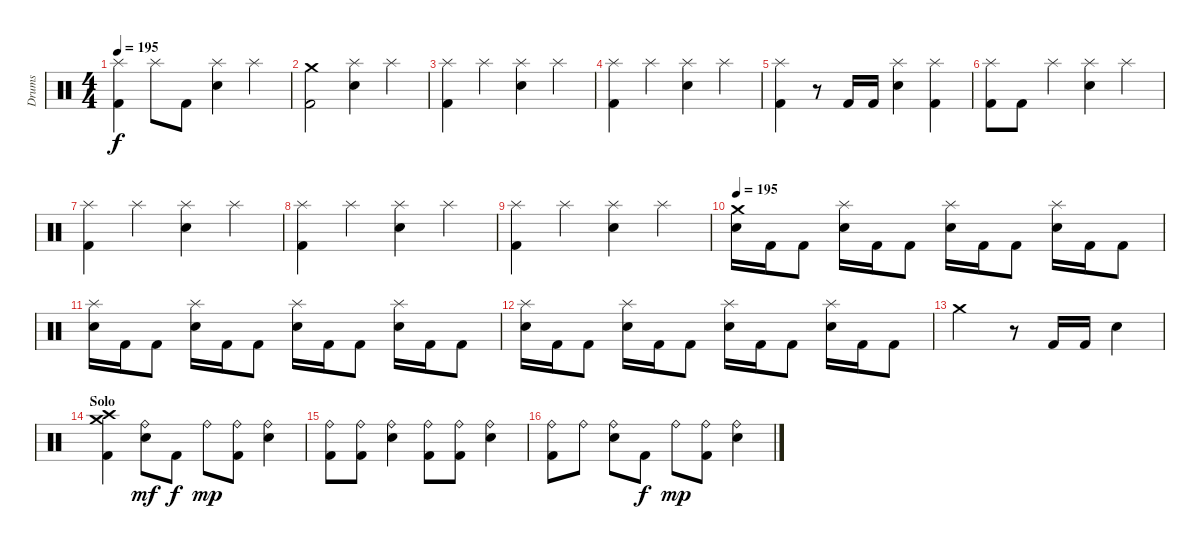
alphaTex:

\track ("Drums" "Drums") {instrument percussion}
\staff {score}
\articulation defaults
\ts (4 4)
\tempo 195
\clef neutral
\ks c
("Splash (hit)" "Kick (hit) 2").4{dy f} "Splash (hit)".8 "Kick (hit) 2".8 ("Splash (hit)" "Electric Snare (hit)").4 "Splash (hit)".4 |
("Crash medium (hit)" "Kick (hit) 2").2 ("Splash (hit)" "Electric Snare (hit)").4 "Splash (hit)".4 |
("Splash (hit)" "Kick (hit) 2").4 "Splash (hit)".4 ("Splash (hit)" "Electric Snare (hit)").4 "Splash (hit)".4 |
("Splash (hit)" "Kick (hit) 2").4 "Splash (hit)".4 ("Splash (hit)" "Electric Snare (hit)").4 "Splash (hit)".4 |
("Splash (hit)" "Kick (hit) 2").4 r.8 "Kick (hit) 2".16 "Kick (hit) 2".16 ("Splash (hit)" "Electric Snare (hit)").4 ("Splash (hit)" "Kick (hit) 2").4 |
("Splash (hit)" "Kick (hit) 2").8 "Kick (hit) 2".8 "Splash (hit)".4 ("Splash (hit)" "Electric Snare (hit)").4 "Splash (hit)".4 |
("Splash (hit)" "Kick (hit) 2").4 "Splash (hit)".4 ("Splash (hit)" "Electric Snare (hit)").4 "Splash (hit)".4 |
("Splash (hit)" "Kick (hit) 2").4 "Splash (hit)".4 ("Splash (hit)" "Electric Snare (hit)").4 "Splash (hit)".4 |
("Splash (hit)" "Kick (hit) 2").4 "Splash (hit)".4 ("Splash (hit)" "Electric Snare (hit)").4 "Splash (hit)".4 |
\tempo 195
("Crash medium (hit)" "Electric Snare (hit)").16 "Kick (hit) 2".16 "Kick (hit) 2".8 ("Splash (hit)" "Electric Snare (hit)").16 "Kick (hit) 2".16 "Kick (hit) 2".8 ("Splash (hit)" "Electric Snare (hit)").16 "Kick (hit) 2".16 "Kick (hit) 2".8 ("Splash (hit)" "Electric Snare (hit)").16 "Kick (hit) 2".16 "Kick (hit) 2".8 |
("Splash (hit)" "Electric Snare (hit)").16 "Kick (hit) 2".16 "Kick (hit) 2".8 ("Splash (hit)" "Electric Snare (hit)").16 "Kick (hit) 2".16 "Kick (hit) 2".8 ("Splash (hit)" "Electric Snare (hit)").16 "Kick (hit) 2".16 "Kick (hit) 2".8 ("Splash (hit)" "Electric Snare (hit)").16 "Kick (hit) 2".16 "Kick (hit) 2".8 |
("Splash (hit)" "Electric Snare (hit)").16 "Kick (hit) 2".16 "Kick (hit) 2".8 ("Splash (hit)" "Electric Snare (hit)").16 "Kick (hit) 2".16 "Kick (hit) 2".8 ("Splash (hit)" "Electric Snare (hit)").16 "Kick (hit) 2".16 "Kick (hit) 2".8 ("Splash (hit)" "Electric Snare (hit)").16 "Kick (hit) 2".16 "Kick (hit) 2".8 |
"Crash medium (hit)".2 r.8 "Kick (hit) 2".16 "Kick (hit) 2".16 "Electric Snare (hit)".4 |
\section ("" "Solo")
("Crash medium (hit)" "Crash high (hit)" "Kick (hit) 2").4 ("Ride (bell)" "Electric Snare (hit)").8{dy mf} "Kick (hit) 2".8{dy f} "Ride (bell)".8{dy mp} ("Ride (bell)" "Kick (hit) 2").8 ("Ride (bell)" "Electric Snare (hit)").4 |
("Ride (bell)" "Kick (hit) 2").8 ("Ride (bell)" "Kick (hit) 2").8 ("Ride (bell)" "Electric Snare (hit)").4 ("Ride (bell)" "Kick (hit) 2").8 ("Ride (bell)" "Kick (hit) 2").8 ("Ride (bell)" "Electric Snare (hit)").4 |
("Ride (bell)" "Kick (hit) 2").8 "Ride (bell)".8 ("Ride (bell)" "Electric Snare (hit)").8 "Kick (hit) 2".8{dy f} "Ride (bell)".8{dy mp} ("Ride (bell)" "Kick (hit) 2").8 ("Ride (bell)" "Electric Snare (hit)").4
